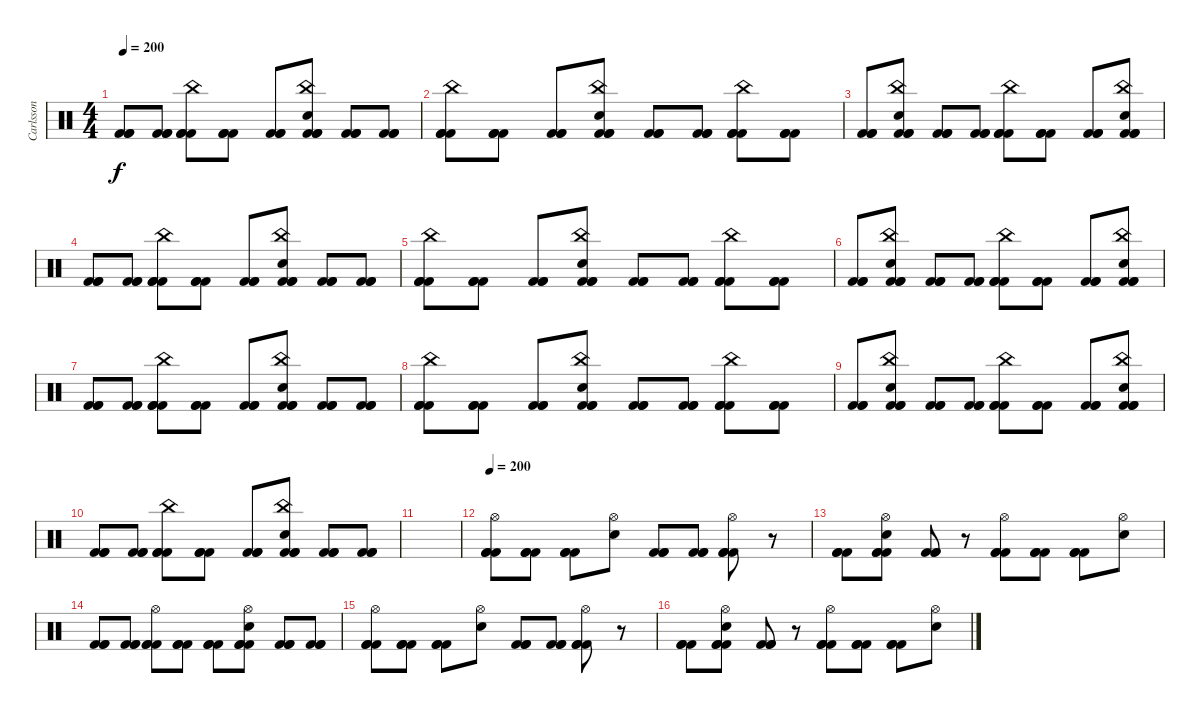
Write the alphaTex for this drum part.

\track ("Carlsson" "Carlsson") {instrument percussion}
\staff {score}
\articulation defaults
\ts (4 4)
\tempo 200
\clef neutral
\ks c
("Kick (hit) 2" "Kick (hit) 2" "Kick (hit) 2").8{dy f} ("Kick (hit) 2" "Kick (hit) 2" "Kick (hit) 2").8 ("China (hit)" "Kick (hit) 2" "Kick (hit) 2" "Kick (hit) 2").8 ("Kick (hit) 2" "Kick (hit) 2" "Kick (hit) 2").8 ("Kick (hit) 2" "Kick (hit) 2" "Kick (hit) 2").8 ("China (hit)" "Snare (hit) 2" "Kick (hit) 2" "Kick (hit) 2" "Kick (hit) 2").8 ("Kick (hit) 2" "Kick (hit) 2" "Kick (hit) 2").8 ("Kick (hit) 2" "Kick (hit) 2" "Kick (hit) 2").8 |
("China (hit)" "Kick (hit) 2" "Kick (hit) 2" "Kick (hit) 2").8 ("Kick (hit) 2" "Kick (hit) 2" "Kick (hit) 2").8 ("Kick (hit) 2" "Kick (hit) 2" "Kick (hit) 2").8 ("China (hit)" "Snare (hit) 2" "Kick (hit) 2" "Kick (hit) 2" "Kick (hit) 2").8 ("Kick (hit) 2" "Kick (hit) 2" "Kick (hit) 2").8 ("Kick (hit) 2" "Kick (hit) 2" "Kick (hit) 2").8 ("China (hit)" "Kick (hit) 2" "Kick (hit) 2" "Kick (hit) 2").8 ("Kick (hit) 2" "Kick (hit) 2" "Kick (hit) 2").8 |
("Kick (hit) 2" "Kick (hit) 2" "Kick (hit) 2").8 ("China (hit)" "Snare (hit) 2" "Kick (hit) 2" "Kick (hit) 2" "Kick (hit) 2").8 ("Kick (hit) 2" "Kick (hit) 2" "Kick (hit) 2").8 ("Kick (hit) 2" "Kick (hit) 2" "Kick (hit) 2").8 ("China (hit)" "Kick (hit) 2" "Kick (hit) 2" "Kick (hit) 2").8 ("Kick (hit) 2" "Kick (hit) 2" "Kick (hit) 2").8 ("Kick (hit) 2" "Kick (hit) 2" "Kick (hit) 2").8 ("China (hit)" "Snare (hit) 2" "Kick (hit) 2" "Kick (hit) 2" "Kick (hit) 2").8 |
("Kick (hit) 2" "Kick (hit) 2" "Kick (hit) 2").8 ("Kick (hit) 2" "Kick (hit) 2" "Kick (hit) 2").8 ("China (hit)" "Kick (hit) 2" "Kick (hit) 2" "Kick (hit) 2").8 ("Kick (hit) 2" "Kick (hit) 2" "Kick (hit) 2").8 ("Kick (hit) 2" "Kick (hit) 2" "Kick (hit) 2").8 ("China (hit)" "Snare (hit) 2" "Kick (hit) 2" "Kick (hit) 2" "Kick (hit) 2").8 ("Kick (hit) 2" "Kick (hit) 2" "Kick (hit) 2").8 ("Kick (hit) 2" "Kick (hit) 2" "Kick (hit) 2").8 |
("China (hit)" "Kick (hit) 2" "Kick (hit) 2" "Kick (hit) 2").8 ("Kick (hit) 2" "Kick (hit) 2" "Kick (hit) 2").8 ("Kick (hit) 2" "Kick (hit) 2" "Kick (hit) 2").8 ("China (hit)" "Snare (hit) 2" "Kick (hit) 2" "Kick (hit) 2" "Kick (hit) 2").8 ("Kick (hit) 2" "Kick (hit) 2" "Kick (hit) 2").8 ("Kick (hit) 2" "Kick (hit) 2" "Kick (hit) 2").8 ("China (hit)" "Kick (hit) 2" "Kick (hit) 2" "Kick (hit) 2").8 ("Kick (hit) 2" "Kick (hit) 2" "Kick (hit) 2").8 |
("Kick (hit) 2" "Kick (hit) 2" "Kick (hit) 2").8 ("China (hit)" "Snare (hit) 2" "Kick (hit) 2" "Kick (hit) 2" "Kick (hit) 2").8 ("Kick (hit) 2" "Kick (hit) 2" "Kick (hit) 2").8 ("Kick (hit) 2" "Kick (hit) 2" "Kick (hit) 2").8 ("China (hit)" "Kick (hit) 2" "Kick (hit) 2" "Kick (hit) 2").8 ("Kick (hit) 2" "Kick (hit) 2" "Kick (hit) 2").8 ("Kick (hit) 2" "Kick (hit) 2" "Kick (hit) 2").8 ("China (hit)" "Snare (hit) 2" "Kick (hit) 2" "Kick (hit) 2" "Kick (hit) 2").8 |
("Kick (hit) 2" "Kick (hit) 2" "Kick (hit) 2").8 ("Kick (hit) 2" "Kick (hit) 2" "Kick (hit) 2").8 ("China (hit)" "Kick (hit) 2" "Kick (hit) 2" "Kick (hit) 2").8 ("Kick (hit) 2" "Kick (hit) 2" "Kick (hit) 2").8 ("Kick (hit) 2" "Kick (hit) 2" "Kick (hit) 2").8 ("China (hit)" "Snare (hit) 2" "Kick (hit) 2" "Kick (hit) 2" "Kick (hit) 2").8 ("Kick (hit) 2" "Kick (hit) 2" "Kick (hit) 2").8 ("Kick (hit) 2" "Kick (hit) 2" "Kick (hit) 2").8 |
("China (hit)" "Kick (hit) 2" "Kick (hit) 2" "Kick (hit) 2").8 ("Kick (hit) 2" "Kick (hit) 2" "Kick (hit) 2").8 ("Kick (hit) 2" "Kick (hit) 2" "Kick (hit) 2").8 ("China (hit)" "Snare (hit) 2" "Kick (hit) 2" "Kick (hit) 2" "Kick (hit) 2").8 ("Kick (hit) 2" "Kick (hit) 2" "Kick (hit) 2").8 ("Kick (hit) 2" "Kick (hit) 2" "Kick (hit) 2").8 ("China (hit)" "Kick (hit) 2" "Kick (hit) 2" "Kick (hit) 2").8 ("Kick (hit) 2" "Kick (hit) 2" "Kick (hit) 2").8 |
("Kick (hit) 2" "Kick (hit) 2" "Kick (hit) 2").8 ("China (hit)" "Snare (hit) 2" "Kick (hit) 2" "Kick (hit) 2" "Kick (hit) 2").8 ("Kick (hit) 2" "Kick (hit) 2" "Kick (hit) 2").8 ("Kick (hit) 2" "Kick (hit) 2" "Kick (hit) 2").8 ("China (hit)" "Kick (hit) 2" "Kick (hit) 2" "Kick (hit) 2").8 ("Kick (hit) 2" "Kick (hit) 2" "Kick (hit) 2").8 ("Kick (hit) 2" "Kick (hit) 2" "Kick (hit) 2").8 ("China (hit)" "Snare (hit) 2" "Kick (hit) 2" "Kick (hit) 2" "Kick (hit) 2").8 |
("Kick (hit) 2" "Kick (hit) 2" "Kick (hit) 2").8 ("Kick (hit) 2" "Kick (hit) 2" "Kick (hit) 2").8 ("China (hit)" "Kick (hit) 2" "Kick (hit) 2" "Kick (hit) 2").8 ("Kick (hit) 2" "Kick (hit) 2" "Kick (hit) 2").8 ("Kick (hit) 2" "Kick (hit) 2" "Kick (hit) 2").8 ("China (hit)" "Snare (hit) 2" "Kick (hit) 2" "Kick (hit) 2" "Kick (hit) 2").8 ("Kick (hit) 2" "Kick (hit) 2" "Kick (hit) 2").8 ("Kick (hit) 2" "Kick (hit) 2" "Kick (hit) 2").8 |
|
\tempo 200
("Hi-Hat (open)" "Kick (hit) 2" "Kick (hit) 2" "Kick (hit) 2").8 ("Kick (hit) 2" "Kick (hit) 2" "Kick (hit) 2").8 ("Kick (hit) 2" "Kick (hit) 2" "Kick (hit) 2").8 ("Hi-Hat (open)" "Snare (hit) 2").8 ("Kick (hit) 2" "Kick (hit) 2" "Kick (hit) 2").8 ("Kick (hit) 2" "Kick (hit) 2" "Kick (hit) 2").8 ("Hi-Hat (open)" "Kick (hit) 2" "Kick (hit) 2" "Kick (hit) 2").8 r.8 |
("Kick (hit) 2" "Kick (hit) 2" "Kick (hit) 2").8 ("Hi-Hat (open)" "Snare (hit) 2" "Kick (hit) 2" "Kick (hit) 2" "Kick (hit) 2").8 ("Kick (hit) 2" "Kick (hit) 2" "Kick (hit) 2").8 r.8 ("Hi-Hat (open)" "Kick (hit) 2" "Kick (hit) 2" "Kick (hit) 2").8 ("Kick (hit) 2" "Kick (hit) 2" "Kick (hit) 2").8 ("Kick (hit) 2" "Kick (hit) 2" "Kick (hit) 2").8 ("Hi-Hat (open)" "Snare (hit) 2").8 |
("Kick (hit) 2" "Kick (hit) 2" "Kick (hit) 2").8 ("Kick (hit) 2" "Kick (hit) 2" "Kick (hit) 2").8 ("Hi-Hat (open)" "Kick (hit) 2" "Kick (hit) 2" "Kick (hit) 2").8 ("Kick (hit) 2" "Kick (hit) 2" "Kick (hit) 2").8 ("Kick (hit) 2" "Kick (hit) 2" "Kick (hit) 2").8 ("Hi-Hat (open)" "Snare (hit) 2" "Kick (hit) 2" "Kick (hit) 2" "Kick (hit) 2").8 ("Kick (hit) 2" "Kick (hit) 2" "Kick (hit) 2").8 ("Kick (hit) 2" "Kick (hit) 2" "Kick (hit) 2").8 |
("Hi-Hat (open)" "Kick (hit) 2" "Kick (hit) 2" "Kick (hit) 2").8 ("Kick (hit) 2" "Kick (hit) 2" "Kick (hit) 2").8 ("Kick (hit) 2" "Kick (hit) 2" "Kick (hit) 2").8 ("Hi-Hat (open)" "Snare (hit) 2").8 ("Kick (hit) 2" "Kick (hit) 2" "Kick (hit) 2").8 ("Kick (hit) 2" "Kick (hit) 2" "Kick (hit) 2").8 ("Hi-Hat (open)" "Kick (hit) 2" "Kick (hit) 2" "Kick (hit) 2").8 r.8 |
("Kick (hit) 2" "Kick (hit) 2" "Kick (hit) 2").8 ("Hi-Hat (open)" "Snare (hit) 2" "Kick (hit) 2" "Kick (hit) 2" "Kick (hit) 2").8 ("Kick (hit) 2" "Kick (hit) 2" "Kick (hit) 2").8 r.8 ("Hi-Hat (open)" "Kick (hit) 2" "Kick (hit) 2" "Kick (hit) 2").8 ("Kick (hit) 2" "Kick (hit) 2" "Kick (hit) 2").8 ("Kick (hit) 2" "Kick (hit) 2" "Kick (hit) 2").8 ("Hi-Hat (open)" "Snare (hit) 2").8
